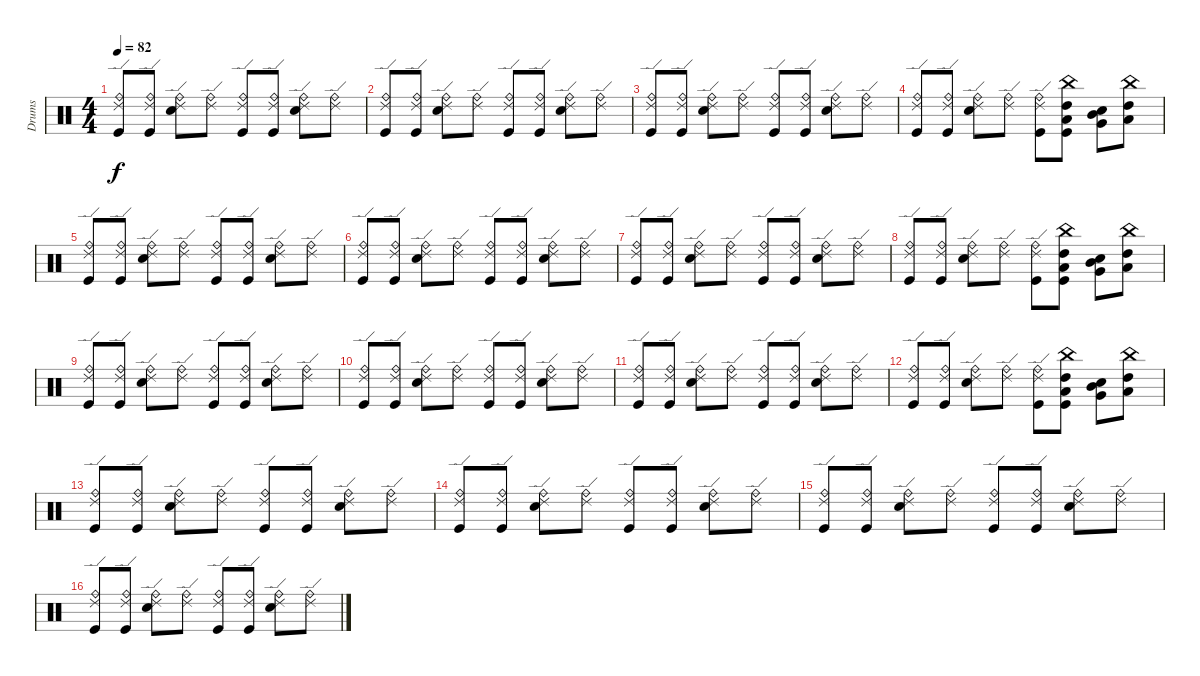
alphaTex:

\track ("Drums" "Drums") {instrument percussion}
\staff {score}
\articulation defaults
\ts (4 4)
\tempo 82
\clef neutral
\ks c
("Ride (edge) 2" "Ride (bell)" "Kick (hit)").8{dy f} ("Kick (hit)" "Ride (bell)" "Ride (edge) 2").8 ("Snare (hit) 2" "Ride (bell)" "Ride (edge) 2").8 ("Ride (bell)" "Ride (edge) 2").8 ("Kick (hit)" "Ride (bell)" "Ride (edge) 2").8 ("Kick (hit)" "Ride (bell)" "Ride (edge) 2").8 ("Snare (hit) 2" "Ride (bell)" "Ride (edge) 2").8 ("Ride (bell)" "Ride (edge) 2").8 |
("Ride (edge) 2" "Ride (bell)" "Kick (hit)").8 ("Kick (hit)" "Ride (bell)" "Ride (edge) 2").8 ("Snare (hit) 2" "Ride (bell)" "Ride (edge) 2").8 ("Ride (bell)" "Ride (edge) 2").8 ("Kick (hit)" "Ride (bell)" "Ride (edge) 2").8 ("Kick (hit)" "Ride (bell)" "Ride (edge) 2").8 ("Snare (hit) 2" "Ride (bell)" "Ride (edge) 2").8 ("Ride (bell)" "Ride (edge) 2").8 |
("Ride (edge) 2" "Ride (bell)" "Kick (hit)").8 ("Kick (hit)" "Ride (bell)" "Ride (edge) 2").8 ("Snare (hit) 2" "Ride (bell)" "Ride (edge) 2").8 ("Ride (bell)" "Ride (edge) 2").8 ("Kick (hit)" "Ride (bell)" "Ride (edge) 2").8 ("Kick (hit)" "Ride (bell)" "Ride (edge) 2").8 ("Snare (hit) 2" "Ride (bell)" "Ride (edge) 2").8 ("Ride (bell)" "Ride (edge) 2").8 |
("Ride (edge) 2" "Ride (bell)" "Kick (hit)").8 ("Kick (hit)" "Ride (bell)" "Ride (edge) 2").8 ("Snare (hit) 2" "Ride (bell)" "Ride (edge) 2").8 ("Ride (bell)" "Ride (edge) 2").8 ("Kick (hit)" "Ride (bell)" "Ride (edge) 2").8 ("Kick (hit)" "High Tom (hit)" "Low Tom (hit)" "China (hit)").8 ("Snare (hit) 2" "Very Low Tom (hit)" "Mid Tom (hit)").8 ("Low Tom (hit)" "High Tom (hit)" "China (hit)").8 |
("Ride (edge) 2" "Ride (bell)" "Kick (hit)").8 ("Kick (hit)" "Ride (bell)" "Ride (edge) 2").8 ("Snare (hit) 2" "Ride (bell)" "Ride (edge) 2").8 ("Ride (bell)" "Ride (edge) 2").8 ("Kick (hit)" "Ride (bell)" "Ride (edge) 2").8 ("Kick (hit)" "Ride (bell)" "Ride (edge) 2").8 ("Snare (hit) 2" "Ride (bell)" "Ride (edge) 2").8 ("Ride (bell)" "Ride (edge) 2").8 |
("Ride (edge) 2" "Ride (bell)" "Kick (hit)").8 ("Kick (hit)" "Ride (bell)" "Ride (edge) 2").8 ("Snare (hit) 2" "Ride (bell)" "Ride (edge) 2").8 ("Ride (bell)" "Ride (edge) 2").8 ("Kick (hit)" "Ride (bell)" "Ride (edge) 2").8 ("Kick (hit)" "Ride (bell)" "Ride (edge) 2").8 ("Snare (hit) 2" "Ride (bell)" "Ride (edge) 2").8 ("Ride (bell)" "Ride (edge) 2").8 |
("Ride (edge) 2" "Ride (bell)" "Kick (hit)").8 ("Kick (hit)" "Ride (bell)" "Ride (edge) 2").8 ("Snare (hit) 2" "Ride (bell)" "Ride (edge) 2").8 ("Ride (bell)" "Ride (edge) 2").8 ("Kick (hit)" "Ride (bell)" "Ride (edge) 2").8 ("Kick (hit)" "Ride (bell)" "Ride (edge) 2").8 ("Snare (hit) 2" "Ride (bell)" "Ride (edge) 2").8 ("Ride (bell)" "Ride (edge) 2").8 |
("Ride (edge) 2" "Ride (bell)" "Kick (hit)").8 ("Kick (hit)" "Ride (bell)" "Ride (edge) 2").8 ("Snare (hit) 2" "Ride (bell)" "Ride (edge) 2").8 ("Ride (bell)" "Ride (edge) 2").8 ("Kick (hit)" "Ride (bell)" "Ride (edge) 2").8 ("Kick (hit)" "High Tom (hit)" "Low Tom (hit)" "China (hit)").8 ("Snare (hit) 2" "Very Low Tom (hit)" "Mid Tom (hit)").8 ("Low Tom (hit)" "High Tom (hit)" "China (hit)").8 |
("Ride (edge) 2" "Ride (bell)" "Kick (hit)").8 ("Kick (hit)" "Ride (bell)" "Ride (edge) 2").8 ("Snare (hit) 2" "Ride (bell)" "Ride (edge) 2").8 ("Ride (bell)" "Ride (edge) 2").8 ("Kick (hit)" "Ride (bell)" "Ride (edge) 2").8 ("Kick (hit)" "Ride (bell)" "Ride (edge) 2").8 ("Snare (hit) 2" "Ride (bell)" "Ride (edge) 2").8 ("Ride (bell)" "Ride (edge) 2").8 |
("Ride (edge) 2" "Ride (bell)" "Kick (hit)").8 ("Kick (hit)" "Ride (bell)" "Ride (edge) 2").8 ("Snare (hit) 2" "Ride (bell)" "Ride (edge) 2").8 ("Ride (bell)" "Ride (edge) 2").8 ("Kick (hit)" "Ride (bell)" "Ride (edge) 2").8 ("Kick (hit)" "Ride (bell)" "Ride (edge) 2").8 ("Snare (hit) 2" "Ride (bell)" "Ride (edge) 2").8 ("Ride (bell)" "Ride (edge) 2").8 |
("Ride (edge) 2" "Ride (bell)" "Kick (hit)").8 ("Kick (hit)" "Ride (bell)" "Ride (edge) 2").8 ("Snare (hit) 2" "Ride (bell)" "Ride (edge) 2").8 ("Ride (bell)" "Ride (edge) 2").8 ("Kick (hit)" "Ride (bell)" "Ride (edge) 2").8 ("Kick (hit)" "Ride (bell)" "Ride (edge) 2").8 ("Snare (hit) 2" "Ride (bell)" "Ride (edge) 2").8 ("Ride (bell)" "Ride (edge) 2").8 |
("Ride (edge) 2" "Ride (bell)" "Kick (hit)").8 ("Kick (hit)" "Ride (bell)" "Ride (edge) 2").8 ("Snare (hit) 2" "Ride (bell)" "Ride (edge) 2").8 ("Ride (bell)" "Ride (edge) 2").8 ("Kick (hit)" "Ride (bell)" "Ride (edge) 2").8 ("Kick (hit)" "High Tom (hit)" "Low Tom (hit)" "China (hit)").8 ("Snare (hit) 2" "Very Low Tom (hit)" "Mid Tom (hit)").8 ("Low Tom (hit)" "High Tom (hit)" "China (hit)").8 |
("Ride (edge) 2" "Ride (bell)" "Kick (hit)").8 ("Kick (hit)" "Ride (bell)" "Ride (edge) 2").8 ("Snare (hit) 2" "Ride (bell)" "Ride (edge) 2").8 ("Ride (bell)" "Ride (edge) 2").8 ("Kick (hit)" "Ride (bell)" "Ride (edge) 2").8 ("Kick (hit)" "Ride (bell)" "Ride (edge) 2").8 ("Snare (hit) 2" "Ride (bell)" "Ride (edge) 2").8 ("Ride (bell)" "Ride (edge) 2").8 |
("Ride (edge) 2" "Ride (bell)" "Kick (hit)").8 ("Kick (hit)" "Ride (bell)" "Ride (edge) 2").8 ("Snare (hit) 2" "Ride (bell)" "Ride (edge) 2").8 ("Ride (bell)" "Ride (edge) 2").8 ("Kick (hit)" "Ride (bell)" "Ride (edge) 2").8 ("Kick (hit)" "Ride (bell)" "Ride (edge) 2").8 ("Snare (hit) 2" "Ride (bell)" "Ride (edge) 2").8 ("Ride (bell)" "Ride (edge) 2").8 |
("Ride (edge) 2" "Ride (bell)" "Kick (hit)").8 ("Kick (hit)" "Ride (bell)" "Ride (edge) 2").8 ("Snare (hit) 2" "Ride (bell)" "Ride (edge) 2").8 ("Ride (bell)" "Ride (edge) 2").8 ("Kick (hit)" "Ride (bell)" "Ride (edge) 2").8 ("Kick (hit)" "Ride (bell)" "Ride (edge) 2").8 ("Snare (hit) 2" "Ride (bell)" "Ride (edge) 2").8 ("Ride (bell)" "Ride (edge) 2").8 |
("Ride (edge) 2" "Ride (bell)" "Kick (hit)").8 ("Kick (hit)" "Ride (bell)" "Ride (edge) 2").8 ("Snare (hit) 2" "Ride (bell)" "Ride (edge) 2").8 ("Ride (bell)" "Ride (edge) 2").8 ("Kick (hit)" "Ride (bell)" "Ride (edge) 2").8 ("Kick (hit)" "Ride (bell)" "Ride (edge) 2").8 ("Snare (hit) 2" "Ride (bell)" "Ride (edge) 2").8 ("Ride (bell)" "Ride (edge) 2").8
